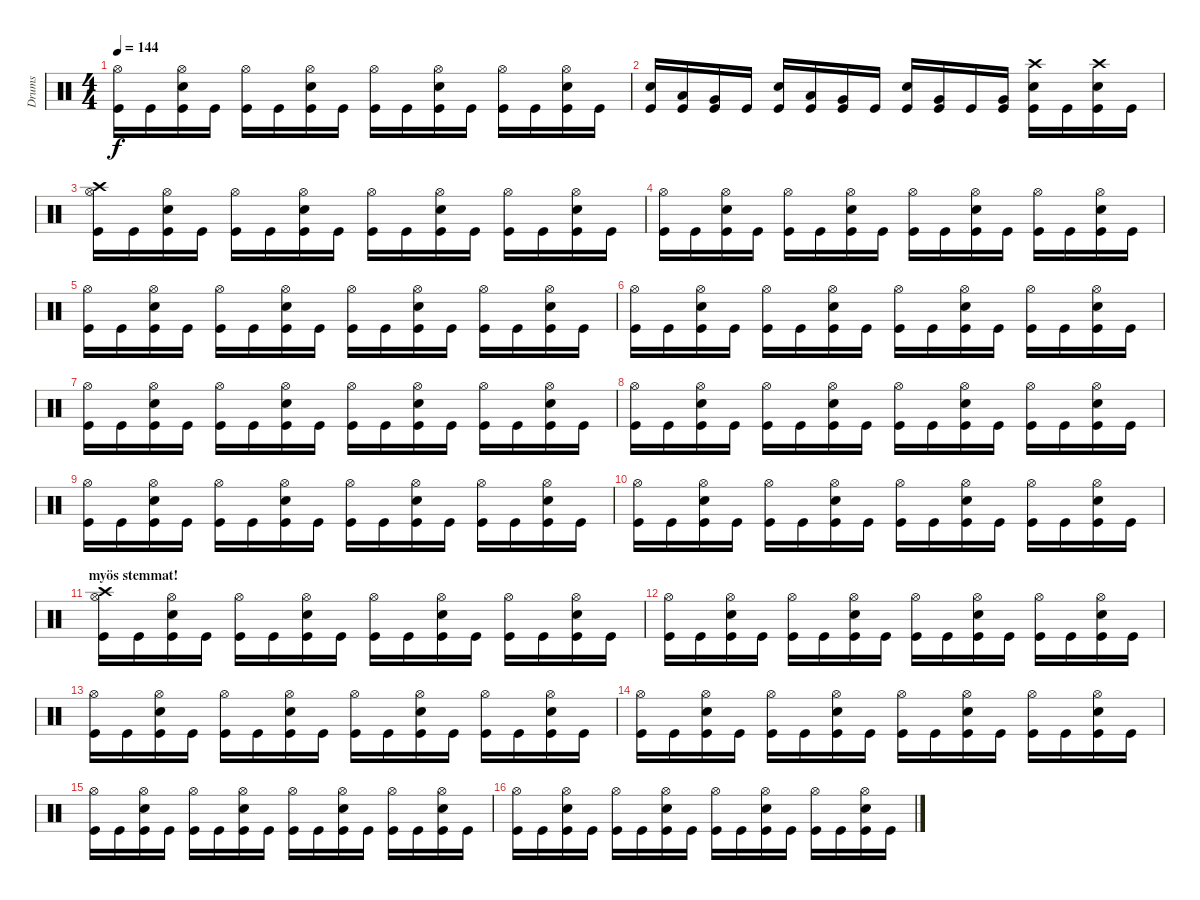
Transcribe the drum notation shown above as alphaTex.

\track ("Drums" "Drums") {instrument percussion}
\staff {score}
\articulation defaults
\ts (4 4)
\tempo 144
\clef neutral
\ks c
("Hi-Hat (open)" "Kick (hit)").16{dy f} "Kick (hit)".16 ("Kick (hit)" "Hi-Hat (open)" "Electric Snare (hit)").16 "Kick (hit)".16 ("Kick (hit)" "Hi-Hat (open)").16 "Kick (hit)".16 ("Kick (hit)" "Hi-Hat (open)" "Electric Snare (hit)").16 "Kick (hit)".16 ("Hi-Hat (open)" "Kick (hit)").16 "Kick (hit)".16 ("Kick (hit)" "Hi-Hat (open)" "Electric Snare (hit)").16 "Kick (hit)".16 ("Kick (hit)" "Hi-Hat (open)").16 "Kick (hit)".16 ("Kick (hit)" "Hi-Hat (open)" "Electric Snare (hit)").16 "Kick (hit)".16 |
("Electric Snare (hit)" "Kick (hit)").16 ("Low Tom (hit)" "Kick (hit)").16 ("Very Low Tom (hit)" "Kick (hit)").16 "Kick (hit)".16 ("Electric Snare (hit)" "Kick (hit)").16 ("Low Tom (hit)" "Kick (hit)").16 ("Very Low Tom (hit)" "Kick (hit)").16 "Kick (hit)".16 ("Snare (hit) 2" "Kick (hit)").16 ("Very Low Tom (hit)" "Kick (hit)").16 "Kick (hit)".16 ("Very Low Tom (hit)" "Kick (hit)").16 ("Crash high (hit)" "Electric Snare (hit)" "Kick (hit)").16 "Kick (hit)".16 ("Crash high (hit)" "Electric Snare (hit)" "Kick (hit)").16 "Kick (hit)".16 |
("Crash high (hit)" "Hi-Hat (open)" "Kick (hit)").16 "Kick (hit)".16 ("Kick (hit)" "Hi-Hat (open)" "Electric Snare (hit)").16 "Kick (hit)".16 ("Kick (hit)" "Hi-Hat (open)").16 "Kick (hit)".16 ("Kick (hit)" "Hi-Hat (open)" "Electric Snare (hit)").16 "Kick (hit)".16 ("Hi-Hat (open)" "Kick (hit)").16 "Kick (hit)".16 ("Kick (hit)" "Hi-Hat (open)" "Electric Snare (hit)").16 "Kick (hit)".16 ("Kick (hit)" "Hi-Hat (open)").16 "Kick (hit)".16 ("Kick (hit)" "Hi-Hat (open)" "Electric Snare (hit)").16 "Kick (hit)".16 |
("Hi-Hat (open)" "Kick (hit)").16 "Kick (hit)".16 ("Kick (hit)" "Hi-Hat (open)" "Electric Snare (hit)").16 "Kick (hit)".16 ("Kick (hit)" "Hi-Hat (open)").16 "Kick (hit)".16 ("Kick (hit)" "Hi-Hat (open)" "Electric Snare (hit)").16 "Kick (hit)".16 ("Hi-Hat (open)" "Kick (hit)").16 "Kick (hit)".16 ("Kick (hit)" "Hi-Hat (open)" "Electric Snare (hit)").16 "Kick (hit)".16 ("Kick (hit)" "Hi-Hat (open)").16 "Kick (hit)".16 ("Kick (hit)" "Hi-Hat (open)" "Electric Snare (hit)").16 "Kick (hit)".16 |
("Hi-Hat (open)" "Kick (hit)").16 "Kick (hit)".16 ("Kick (hit)" "Hi-Hat (open)" "Electric Snare (hit)").16 "Kick (hit)".16 ("Kick (hit)" "Hi-Hat (open)").16 "Kick (hit)".16 ("Kick (hit)" "Hi-Hat (open)" "Electric Snare (hit)").16 "Kick (hit)".16 ("Hi-Hat (open)" "Kick (hit)").16 "Kick (hit)".16 ("Kick (hit)" "Hi-Hat (open)" "Electric Snare (hit)").16 "Kick (hit)".16 ("Kick (hit)" "Hi-Hat (open)").16 "Kick (hit)".16 ("Kick (hit)" "Hi-Hat (open)" "Electric Snare (hit)").16 "Kick (hit)".16 |
("Hi-Hat (open)" "Kick (hit)").16 "Kick (hit)".16 ("Kick (hit)" "Hi-Hat (open)" "Electric Snare (hit)").16 "Kick (hit)".16 ("Kick (hit)" "Hi-Hat (open)").16 "Kick (hit)".16 ("Kick (hit)" "Hi-Hat (open)" "Electric Snare (hit)").16 "Kick (hit)".16 ("Hi-Hat (open)" "Kick (hit)").16 "Kick (hit)".16 ("Kick (hit)" "Hi-Hat (open)" "Electric Snare (hit)").16 "Kick (hit)".16 ("Kick (hit)" "Hi-Hat (open)").16 "Kick (hit)".16 ("Kick (hit)" "Hi-Hat (open)" "Electric Snare (hit)").16 "Kick (hit)".16 |
("Hi-Hat (open)" "Kick (hit)").16 "Kick (hit)".16 ("Kick (hit)" "Hi-Hat (open)" "Electric Snare (hit)").16 "Kick (hit)".16 ("Kick (hit)" "Hi-Hat (open)").16 "Kick (hit)".16 ("Kick (hit)" "Hi-Hat (open)" "Electric Snare (hit)").16 "Kick (hit)".16 ("Hi-Hat (open)" "Kick (hit)").16 "Kick (hit)".16 ("Kick (hit)" "Hi-Hat (open)" "Electric Snare (hit)").16 "Kick (hit)".16 ("Kick (hit)" "Hi-Hat (open)").16 "Kick (hit)".16 ("Kick (hit)" "Hi-Hat (open)" "Electric Snare (hit)").16 "Kick (hit)".16 |
("Hi-Hat (open)" "Kick (hit)").16 "Kick (hit)".16 ("Kick (hit)" "Hi-Hat (open)" "Electric Snare (hit)").16 "Kick (hit)".16 ("Kick (hit)" "Hi-Hat (open)").16 "Kick (hit)".16 ("Kick (hit)" "Hi-Hat (open)" "Electric Snare (hit)").16 "Kick (hit)".16 ("Hi-Hat (open)" "Kick (hit)").16 "Kick (hit)".16 ("Kick (hit)" "Hi-Hat (open)" "Electric Snare (hit)").16 "Kick (hit)".16 ("Kick (hit)" "Hi-Hat (open)").16 "Kick (hit)".16 ("Kick (hit)" "Hi-Hat (open)" "Electric Snare (hit)").16 "Kick (hit)".16 |
("Hi-Hat (open)" "Kick (hit)").16 "Kick (hit)".16 ("Kick (hit)" "Hi-Hat (open)" "Electric Snare (hit)").16 "Kick (hit)".16 ("Kick (hit)" "Hi-Hat (open)").16 "Kick (hit)".16 ("Kick (hit)" "Hi-Hat (open)" "Electric Snare (hit)").16 "Kick (hit)".16 ("Hi-Hat (open)" "Kick (hit)").16 "Kick (hit)".16 ("Kick (hit)" "Hi-Hat (open)" "Electric Snare (hit)").16 "Kick (hit)".16 ("Kick (hit)" "Hi-Hat (open)").16 "Kick (hit)".16 ("Kick (hit)" "Hi-Hat (open)" "Electric Snare (hit)").16 "Kick (hit)".16 |
("Hi-Hat (open)" "Kick (hit)").16 "Kick (hit)".16 ("Kick (hit)" "Hi-Hat (open)" "Electric Snare (hit)").16 "Kick (hit)".16 ("Kick (hit)" "Hi-Hat (open)").16 "Kick (hit)".16 ("Kick (hit)" "Hi-Hat (open)" "Electric Snare (hit)").16 "Kick (hit)".16 ("Hi-Hat (open)" "Kick (hit)").16 "Kick (hit)".16 ("Kick (hit)" "Hi-Hat (open)" "Electric Snare (hit)").16 "Kick (hit)".16 ("Kick (hit)" "Hi-Hat (open)").16 "Kick (hit)".16 ("Kick (hit)" "Hi-Hat (open)" "Electric Snare (hit)").16 "Kick (hit)".16 |
\section ("" "myös stemmat!")
("Hi-Hat (open)" "Crash high (hit)" "Kick (hit)").16 "Kick (hit)".16 ("Kick (hit)" "Hi-Hat (open)" "Electric Snare (hit)").16 "Kick (hit)".16 ("Kick (hit)" "Hi-Hat (open)").16 "Kick (hit)".16 ("Kick (hit)" "Hi-Hat (open)" "Electric Snare (hit)").16 "Kick (hit)".16 ("Hi-Hat (open)" "Kick (hit)").16 "Kick (hit)".16 ("Kick (hit)" "Hi-Hat (open)" "Electric Snare (hit)").16 "Kick (hit)".16 ("Kick (hit)" "Hi-Hat (open)").16 "Kick (hit)".16 ("Kick (hit)" "Hi-Hat (open)" "Electric Snare (hit)").16 "Kick (hit)".16 |
("Hi-Hat (open)" "Kick (hit)").16 "Kick (hit)".16 ("Kick (hit)" "Hi-Hat (open)" "Electric Snare (hit)").16 "Kick (hit)".16 ("Kick (hit)" "Hi-Hat (open)").16 "Kick (hit)".16 ("Kick (hit)" "Hi-Hat (open)" "Electric Snare (hit)").16 "Kick (hit)".16 ("Hi-Hat (open)" "Kick (hit)").16 "Kick (hit)".16 ("Kick (hit)" "Hi-Hat (open)" "Electric Snare (hit)").16 "Kick (hit)".16 ("Kick (hit)" "Hi-Hat (open)").16 "Kick (hit)".16 ("Kick (hit)" "Hi-Hat (open)" "Electric Snare (hit)").16 "Kick (hit)".16 |
("Hi-Hat (open)" "Kick (hit)").16 "Kick (hit)".16 ("Kick (hit)" "Hi-Hat (open)" "Electric Snare (hit)").16 "Kick (hit)".16 ("Kick (hit)" "Hi-Hat (open)").16 "Kick (hit)".16 ("Kick (hit)" "Hi-Hat (open)" "Electric Snare (hit)").16 "Kick (hit)".16 ("Hi-Hat (open)" "Kick (hit)").16 "Kick (hit)".16 ("Kick (hit)" "Hi-Hat (open)" "Electric Snare (hit)").16 "Kick (hit)".16 ("Kick (hit)" "Hi-Hat (open)").16 "Kick (hit)".16 ("Kick (hit)" "Hi-Hat (open)" "Electric Snare (hit)").16 "Kick (hit)".16 |
("Hi-Hat (open)" "Kick (hit)").16 "Kick (hit)".16 ("Kick (hit)" "Hi-Hat (open)" "Electric Snare (hit)").16 "Kick (hit)".16 ("Kick (hit)" "Hi-Hat (open)").16 "Kick (hit)".16 ("Kick (hit)" "Hi-Hat (open)" "Electric Snare (hit)").16 "Kick (hit)".16 ("Hi-Hat (open)" "Kick (hit)").16 "Kick (hit)".16 ("Kick (hit)" "Hi-Hat (open)" "Electric Snare (hit)").16 "Kick (hit)".16 ("Kick (hit)" "Hi-Hat (open)").16 "Kick (hit)".16 ("Kick (hit)" "Hi-Hat (open)" "Electric Snare (hit)").16 "Kick (hit)".16 |
("Hi-Hat (open)" "Kick (hit)").16 "Kick (hit)".16 ("Kick (hit)" "Hi-Hat (open)" "Electric Snare (hit)").16 "Kick (hit)".16 ("Kick (hit)" "Hi-Hat (open)").16 "Kick (hit)".16 ("Kick (hit)" "Hi-Hat (open)" "Electric Snare (hit)").16 "Kick (hit)".16 ("Hi-Hat (open)" "Kick (hit)").16 "Kick (hit)".16 ("Kick (hit)" "Hi-Hat (open)" "Electric Snare (hit)").16 "Kick (hit)".16 ("Kick (hit)" "Hi-Hat (open)").16 "Kick (hit)".16 ("Kick (hit)" "Hi-Hat (open)" "Electric Snare (hit)").16 "Kick (hit)".16 |
("Hi-Hat (open)" "Kick (hit)").16 "Kick (hit)".16 ("Kick (hit)" "Hi-Hat (open)" "Electric Snare (hit)").16 "Kick (hit)".16 ("Kick (hit)" "Hi-Hat (open)").16 "Kick (hit)".16 ("Kick (hit)" "Hi-Hat (open)" "Electric Snare (hit)").16 "Kick (hit)".16 ("Hi-Hat (open)" "Kick (hit)").16 "Kick (hit)".16 ("Kick (hit)" "Hi-Hat (open)" "Electric Snare (hit)").16 "Kick (hit)".16 ("Kick (hit)" "Hi-Hat (open)").16 "Kick (hit)".16 ("Kick (hit)" "Hi-Hat (open)" "Electric Snare (hit)").16 "Kick (hit)".16
